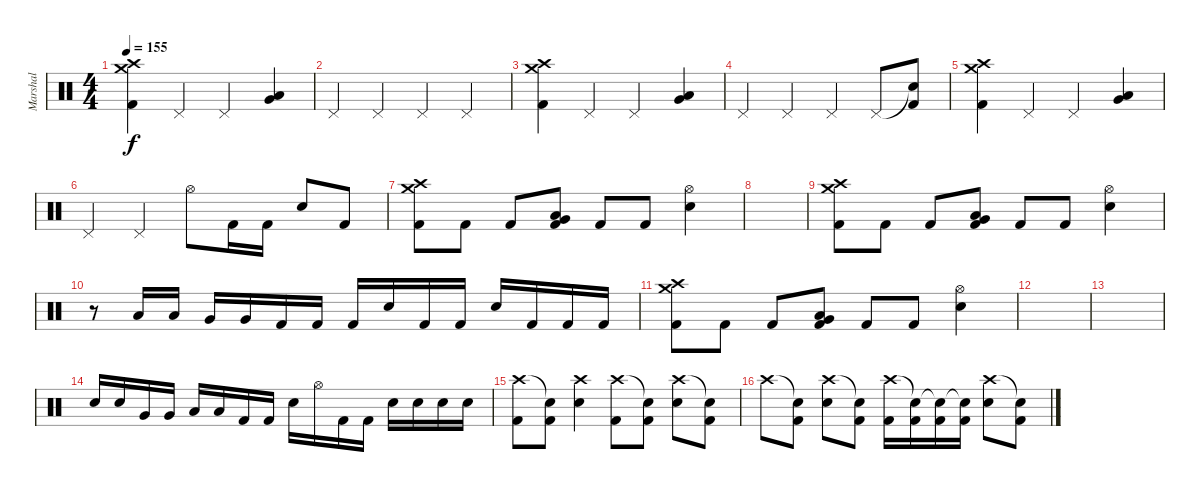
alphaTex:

\track ("Marshal" "Marshal") {instrument percussion}
\staff {score}
\articulation defaults
\ts (4 4)
\tempo 155
\clef neutral
\ks c
("Crash medium (hit)" "Crash high (hit)" "Kick (hit) 2").4{dy f} "Pedal Hi-Hat (hit)".4 "Pedal Hi-Hat (hit)".4 ("Very Low Tom (hit)" "Low Floor Tom (hit)").4 |
"Pedal Hi-Hat (hit)".4 "Pedal Hi-Hat (hit)".4 "Pedal Hi-Hat (hit)".4 "Pedal Hi-Hat (hit)".4 |
("Crash medium (hit)" "Crash high (hit)" "Kick (hit) 2").4 "Pedal Hi-Hat (hit)".4 "Pedal Hi-Hat (hit)".4 ("Very Low Tom (hit)" "Low Floor Tom (hit)").4 |
"Pedal Hi-Hat (hit)".4 "Pedal Hi-Hat (hit)".4 "Pedal Hi-Hat (hit)".4 "Pedal Hi-Hat (hit)".8 ("Snare (hit)"{t} "Kick (hit) 2").8 |
("Crash medium (hit)" "Crash high (hit)" "Kick (hit) 2").4 "Pedal Hi-Hat (hit)".4 "Pedal Hi-Hat (hit)".4 ("Very Low Tom (hit)" "Low Floor Tom (hit)").4 |
"Pedal Hi-Hat (hit)".4 "Pedal Hi-Hat (hit)".4 "Hi-Hat (open)".8 "Kick (hit) 2".16 "Kick (hit) 2".16 "Electric Snare (hit)".8 "Kick (hit) 2".8 |
("Crash medium (hit)" "Crash high (hit)" "Kick (hit) 2").8 "Kick (hit) 2".8 "Kick (hit) 2".8 ("Very Low Tom (hit)" "Low Floor Tom (hit)" "Kick (hit) 2").8 "Kick (hit) 2".8 "Kick (hit) 2".8 ("Hi-Hat (open)" "Electric Snare (hit)").4 |
|
("Crash medium (hit)" "Crash high (hit)" "Kick (hit) 2").8 "Kick (hit) 2".8 "Kick (hit) 2".8 ("Very Low Tom (hit)" "Low Floor Tom (hit)" "Kick (hit) 2").8 "Kick (hit) 2".8 "Kick (hit) 2".8 ("Hi-Hat (open)" "Electric Snare (hit)").4 |
r.8 "Low Tom (hit)".16 "Low Tom (hit)".16 "Very Low Tom (hit)".16 "Very Low Tom (hit)".16 "Kick (hit) 2".16 "Kick (hit) 2".16 "Kick (hit) 2".16 "Electric Snare (hit)".16 "Kick (hit) 2".16 "Kick (hit) 2".16 "Electric Snare (hit)".16 "Kick (hit) 2".16 "Kick (hit) 2".16 "Kick (hit) 2".16 |
("Crash medium (hit)" "Crash high (hit)" "Kick (hit) 2").8 "Kick (hit) 2".8 "Kick (hit) 2".8 ("Very Low Tom (hit)" "Low Floor Tom (hit)" "Kick (hit) 2").8 "Kick (hit) 2".8 "Kick (hit) 2".8 ("Hi-Hat (open)" "Electric Snare (hit)").4 |
|
|
"Electric Snare (hit)".16 "Electric Snare (hit)".16 "Very Low Tom (hit)".16 "Very Low Tom (hit)".16 "Low Floor Tom (hit)".16 "Low Floor Tom (hit)".16 "Kick (hit) 2".16 "Kick (hit) 2".16 "Electric Snare (hit)".16 "Hi-Hat (open)".16 "Kick (hit) 2".16 "Kick (hit) 2".16 "Electric Snare (hit)".16 "Electric Snare (hit)".16 "Electric Snare (hit)".16 "Electric Snare (hit)".16 |
("Crash high (hit)" "Kick (hit) 2").8 ("Snare (hit)"{t} "Kick (hit) 2").8 ("Crash high (hit)" "Electric Snare (hit)").4 ("Crash high (hit)" "Kick (hit) 2").8 ("Snare (hit)"{t} "Kick (hit) 2").8 ("Crash high (hit)" "Electric Snare (hit)").8 ("Snare (hit)"{t} "Kick (hit) 2").8 |
"Crash high (hit)".8 ("Snare (hit)"{t} "Kick (hit) 2").8 ("Crash high (hit)" "Electric Snare (hit)").8 ("Snare (hit)"{t} "Kick (hit) 2").8 ("Crash high (hit)" "Kick (hit) 2").16 ("Snare (hit)"{t} "Kick (hit) 2").16 ("Snare (hit)"{t} "Kick (hit) 2").16 ("Snare (hit)"{t} "Kick (hit) 2").16 ("Crash high (hit)" "Electric Snare (hit)").8 ("Snare (hit)"{t} "Kick (hit) 2").8
